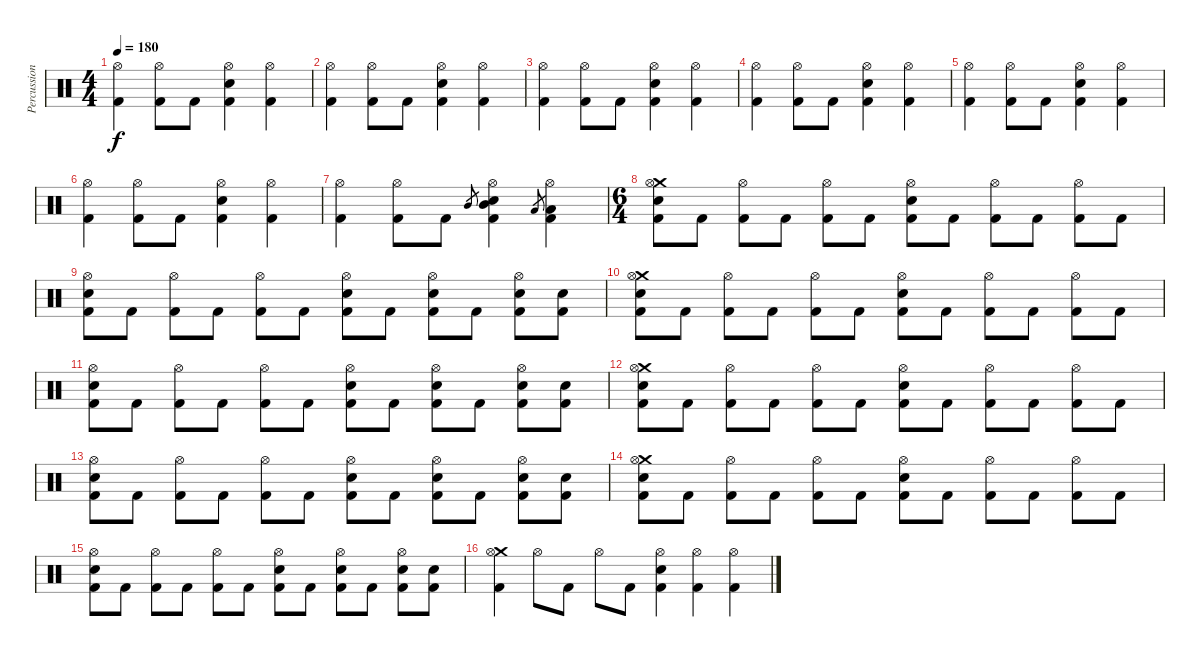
\track ("Percussion" "Percussion") {instrument percussion}
\staff {score}
\articulation defaults
\ts (4 4)
\tempo 180
\clef neutral
\ks c
("Hi-Hat (open)" "Kick (hit) 2").4{dy f} ("Hi-Hat (open)" "Kick (hit) 2").8 "Kick (hit) 2".8 ("Hi-Hat (open)" "Electric Snare (hit)" "Kick (hit) 2").4 ("Hi-Hat (open)" "Kick (hit) 2").4 |
("Hi-Hat (open)" "Kick (hit) 2").4 ("Hi-Hat (open)" "Kick (hit) 2").8 "Kick (hit) 2".8 ("Hi-Hat (open)" "Electric Snare (hit)" "Kick (hit) 2").4 ("Hi-Hat (open)" "Kick (hit) 2").4 |
("Hi-Hat (open)" "Kick (hit) 2").4 ("Hi-Hat (open)" "Kick (hit) 2").8 "Kick (hit) 2".8 ("Hi-Hat (open)" "Electric Snare (hit)" "Kick (hit) 2").4 ("Hi-Hat (open)" "Kick (hit) 2").4 |
("Hi-Hat (open)" "Kick (hit) 2").4 ("Hi-Hat (open)" "Kick (hit) 2").8 "Kick (hit) 2".8 ("Hi-Hat (open)" "Electric Snare (hit)" "Kick (hit) 2").4 ("Hi-Hat (open)" "Kick (hit) 2").4 |
("Hi-Hat (open)" "Kick (hit) 2").4 ("Hi-Hat (open)" "Kick (hit) 2").8 "Kick (hit) 2".8 ("Hi-Hat (open)" "Electric Snare (hit)" "Kick (hit) 2").4 ("Hi-Hat (open)" "Kick (hit) 2").4 |
("Hi-Hat (open)" "Kick (hit) 2").4 ("Hi-Hat (open)" "Kick (hit) 2").8 "Kick (hit) 2".8 ("Hi-Hat (open)" "Electric Snare (hit)" "Kick (hit) 2").4 ("Hi-Hat (open)" "Kick (hit) 2").4 |
("Hi-Hat (open)" "Kick (hit) 2").4 ("Hi-Hat (open)" "Kick (hit) 2").8 "Kick (hit) 2".8 "Mid Tom (hit)".8{gr} ("Hi-Hat (open)" "Mid Tom (hit)" "Electric Snare (hit)" "Kick (hit) 2").4 "Low Tom (hit)".8{gr} ("Hi-Hat (open)" "Low Tom (hit)" "Kick (hit) 2").4 |
\ts (6 4)
("Crash medium (hit)" "Hi-Hat (open)" "Electric Snare (hit)" "Kick (hit) 2").8 "Kick (hit) 2".8 ("Hi-Hat (open)" "Kick (hit) 2").8 "Kick (hit) 2".8 ("Hi-Hat (open)" "Kick (hit) 2").8 "Kick (hit) 2".8 ("Hi-Hat (open)" "Electric Snare (hit)" "Kick (hit) 2").8 "Kick (hit) 2".8 ("Hi-Hat (open)" "Kick (hit) 2").8 "Kick (hit) 2".8 ("Hi-Hat (open)" "Kick (hit) 2").8 "Kick (hit) 2".8 |
("Hi-Hat (open)" "Electric Snare (hit)" "Kick (hit) 2").8 "Kick (hit) 2".8 ("Hi-Hat (open)" "Kick (hit) 2").8 "Kick (hit) 2".8 ("Hi-Hat (open)" "Kick (hit) 2").8 "Kick (hit) 2".8 ("Hi-Hat (open)" "Electric Snare (hit)" "Kick (hit) 2").8 "Kick (hit) 2".8 ("Hi-Hat (open)" "Electric Snare (hit)" "Kick (hit) 2").8 "Kick (hit) 2".8 ("Hi-Hat (open)" "Electric Snare (hit)" "Kick (hit) 2").8 ("Electric Snare (hit)" "Kick (hit) 2").8 |
("Crash medium (hit)" "Hi-Hat (open)" "Electric Snare (hit)" "Kick (hit) 2").8 "Kick (hit) 2".8 ("Hi-Hat (open)" "Kick (hit) 2").8 "Kick (hit) 2".8 ("Hi-Hat (open)" "Kick (hit) 2").8 "Kick (hit) 2".8 ("Hi-Hat (open)" "Electric Snare (hit)" "Kick (hit) 2").8 "Kick (hit) 2".8 ("Hi-Hat (open)" "Kick (hit) 2").8 "Kick (hit) 2".8 ("Hi-Hat (open)" "Kick (hit) 2").8 "Kick (hit) 2".8 |
("Hi-Hat (open)" "Electric Snare (hit)" "Kick (hit) 2").8 "Kick (hit) 2".8 ("Hi-Hat (open)" "Kick (hit) 2").8 "Kick (hit) 2".8 ("Hi-Hat (open)" "Kick (hit) 2").8 "Kick (hit) 2".8 ("Hi-Hat (open)" "Electric Snare (hit)" "Kick (hit) 2").8 "Kick (hit) 2".8 ("Hi-Hat (open)" "Electric Snare (hit)" "Kick (hit) 2").8 "Kick (hit) 2".8 ("Hi-Hat (open)" "Electric Snare (hit)" "Kick (hit) 2").8 ("Electric Snare (hit)" "Kick (hit) 2").8 |
("Crash medium (hit)" "Hi-Hat (open)" "Electric Snare (hit)" "Kick (hit) 2").8 "Kick (hit) 2".8 ("Hi-Hat (open)" "Kick (hit) 2").8 "Kick (hit) 2".8 ("Hi-Hat (open)" "Kick (hit) 2").8 "Kick (hit) 2".8 ("Hi-Hat (open)" "Electric Snare (hit)" "Kick (hit) 2").8 "Kick (hit) 2".8 ("Hi-Hat (open)" "Kick (hit) 2").8 "Kick (hit) 2".8 ("Hi-Hat (open)" "Kick (hit) 2").8 "Kick (hit) 2".8 |
("Hi-Hat (open)" "Electric Snare (hit)" "Kick (hit) 2").8 "Kick (hit) 2".8 ("Hi-Hat (open)" "Kick (hit) 2").8 "Kick (hit) 2".8 ("Hi-Hat (open)" "Kick (hit) 2").8 "Kick (hit) 2".8 ("Hi-Hat (open)" "Electric Snare (hit)" "Kick (hit) 2").8 "Kick (hit) 2".8 ("Hi-Hat (open)" "Electric Snare (hit)" "Kick (hit) 2").8 "Kick (hit) 2".8 ("Hi-Hat (open)" "Electric Snare (hit)" "Kick (hit) 2").8 ("Electric Snare (hit)" "Kick (hit) 2").8 |
("Crash medium (hit)" "Hi-Hat (open)" "Electric Snare (hit)" "Kick (hit) 2").8 "Kick (hit) 2".8 ("Hi-Hat (open)" "Kick (hit) 2").8 "Kick (hit) 2".8 ("Hi-Hat (open)" "Kick (hit) 2").8 "Kick (hit) 2".8 ("Hi-Hat (open)" "Electric Snare (hit)" "Kick (hit) 2").8 "Kick (hit) 2".8 ("Hi-Hat (open)" "Kick (hit) 2").8 "Kick (hit) 2".8 ("Hi-Hat (open)" "Kick (hit) 2").8 "Kick (hit) 2".8 |
("Hi-Hat (open)" "Electric Snare (hit)" "Kick (hit) 2").8 "Kick (hit) 2".8 ("Hi-Hat (open)" "Kick (hit) 2").8 "Kick (hit) 2".8 ("Hi-Hat (open)" "Kick (hit) 2").8 "Kick (hit) 2".8 ("Hi-Hat (open)" "Electric Snare (hit)" "Kick (hit) 2").8 "Kick (hit) 2".8 ("Hi-Hat (open)" "Electric Snare (hit)" "Kick (hit) 2").8 "Kick (hit) 2".8 ("Hi-Hat (open)" "Electric Snare (hit)" "Kick (hit) 2").8 ("Electric Snare (hit)" "Kick (hit) 2").8 |
("Crash medium (hit)" "Hi-Hat (open)" "Kick (hit) 2").4 "Hi-Hat (open)".8 "Kick (hit) 2".8 "Hi-Hat (open)".8 "Kick (hit) 2".8 ("Hi-Hat (open)" "Electric Snare (hit)" "Kick (hit) 2").4 ("Hi-Hat (open)" "Kick (hit) 2").4 ("Hi-Hat (open)" "Kick (hit) 2").4
